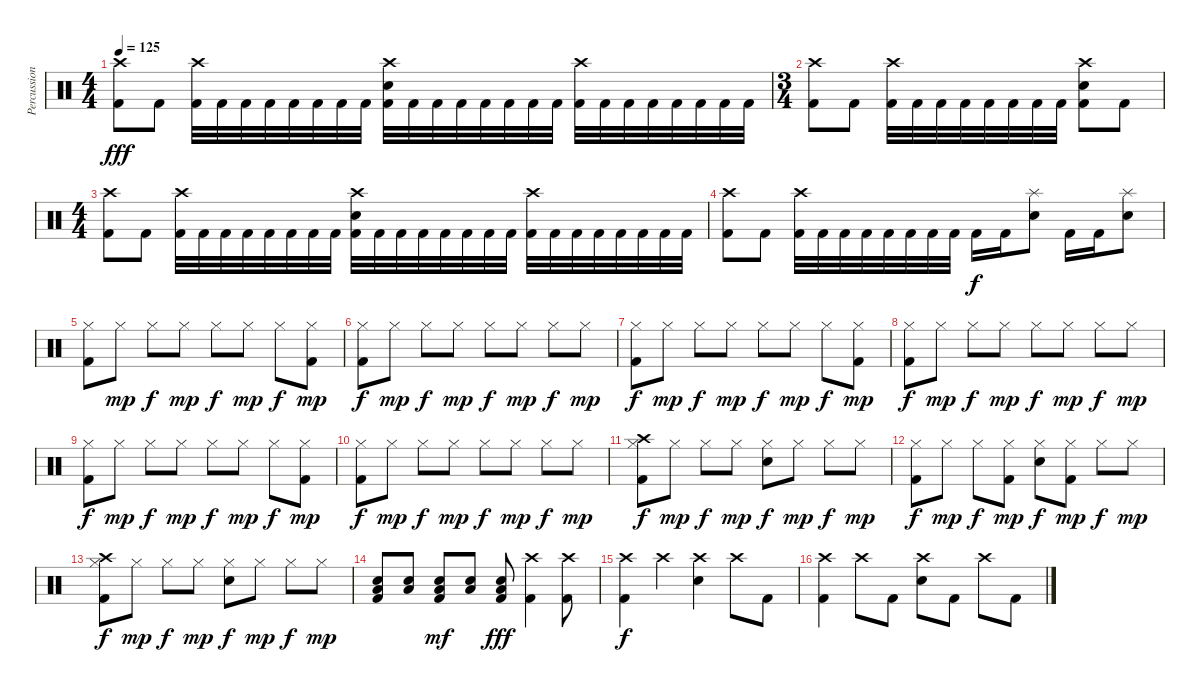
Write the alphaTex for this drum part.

\track ("Percussions" "Percussion") {instrument percussion}
\staff {score}
\articulation defaults
\ts (4 4)
\tempo 125
\clef neutral
\ks c
("Crash high (hit)" "Kick (hit) 2").8{dy fff} "Kick (hit) 2".8 ("Crash high (hit)" "Kick (hit) 2").32 "Kick (hit) 2".32 "Kick (hit) 2".32 "Kick (hit) 2".32 "Kick (hit) 2".32 "Kick (hit) 2".32 "Kick (hit) 2".32 "Kick (hit) 2".32 ("Crash high (hit)" "Electric Snare (hit)" "Kick (hit) 2").32 "Kick (hit) 2".32 "Kick (hit) 2".32 "Kick (hit) 2".32 "Kick (hit) 2".32 "Kick (hit) 2".32 "Kick (hit) 2".32 "Kick (hit) 2".32 ("Crash high (hit)" "Kick (hit) 2").32 "Kick (hit) 2".32 "Kick (hit) 2".32 "Kick (hit) 2".32 "Kick (hit) 2".32 "Kick (hit) 2".32 "Kick (hit) 2".32 "Kick (hit) 2".32 |
\ts (3 4)
("Crash high (hit)" "Kick (hit) 2").8 "Kick (hit) 2".8 ("Crash high (hit)" "Kick (hit) 2").32 "Kick (hit) 2".32 "Kick (hit) 2".32 "Kick (hit) 2".32 "Kick (hit) 2".32 "Kick (hit) 2".32 "Kick (hit) 2".32 "Kick (hit) 2".32 ("Crash high (hit)" "Electric Snare (hit)" "Kick (hit) 2").8 "Kick (hit) 2".8 |
\ts (4 4)
("Crash high (hit)" "Kick (hit) 2").8 "Kick (hit) 2".8 ("Crash high (hit)" "Kick (hit) 2").32 "Kick (hit) 2".32 "Kick (hit) 2".32 "Kick (hit) 2".32 "Kick (hit) 2".32 "Kick (hit) 2".32 "Kick (hit) 2".32 "Kick (hit) 2".32 ("Crash high (hit)" "Electric Snare (hit)" "Kick (hit) 2").32 "Kick (hit) 2".32 "Kick (hit) 2".32 "Kick (hit) 2".32 "Kick (hit) 2".32 "Kick (hit) 2".32 "Kick (hit) 2".32 "Kick (hit) 2".32 ("Crash high (hit)" "Kick (hit) 2").32 "Kick (hit) 2".32 "Kick (hit) 2".32 "Kick (hit) 2".32 "Kick (hit) 2".32 "Kick (hit) 2".32 "Kick (hit) 2".32 "Kick (hit) 2".32 |
("Crash high (hit)" "Kick (hit) 2").8 "Kick (hit) 2".8 ("Crash high (hit)" "Kick (hit) 2").32 "Kick (hit) 2".32 "Kick (hit) 2".32 "Kick (hit) 2".32 "Kick (hit) 2".32 "Kick (hit) 2".32 "Kick (hit) 2".32 "Kick (hit) 2".32 "Kick (hit) 2".16{dy f} "Kick (hit) 2".16 ("Splash (hit)" "Electric Snare (hit)").8 "Kick (hit) 2".16 "Kick (hit) 2".16 ("Splash (hit)" "Electric Snare (hit)").8 |
("Hi-Hat (closed)" "Kick (hit) 2").8 "Hi-Hat (closed)".8{dy mp} "Hi-Hat (closed)".8{dy f} "Hi-Hat (closed)".8{dy mp} "Hi-Hat (closed)".8{dy f} "Hi-Hat (closed)".8{dy mp} "Hi-Hat (closed)".8{dy f} ("Hi-Hat (closed)" "Kick (hit) 2").8{dy mp} |
("Hi-Hat (closed)" "Kick (hit) 2").8{dy f} "Hi-Hat (closed)".8{dy mp} "Hi-Hat (closed)".8{dy f} "Hi-Hat (closed)".8{dy mp} "Hi-Hat (closed)".8{dy f} "Hi-Hat (closed)".8{dy mp} "Hi-Hat (closed)".8{dy f} "Hi-Hat (closed)".8{dy mp} |
("Hi-Hat (closed)" "Kick (hit) 2").8{dy f} "Hi-Hat (closed)".8{dy mp} "Hi-Hat (closed)".8{dy f} "Hi-Hat (closed)".8{dy mp} "Hi-Hat (closed)".8{dy f} "Hi-Hat (closed)".8{dy mp} "Hi-Hat (closed)".8{dy f} ("Hi-Hat (closed)" "Kick (hit) 2").8{dy mp} |
("Hi-Hat (closed)" "Kick (hit) 2").8{dy f} "Hi-Hat (closed)".8{dy mp} "Hi-Hat (closed)".8{dy f} "Hi-Hat (closed)".8{dy mp} "Hi-Hat (closed)".8{dy f} "Hi-Hat (closed)".8{dy mp} "Hi-Hat (closed)".8{dy f} "Hi-Hat (closed)".8{dy mp} |
("Hi-Hat (closed)" "Kick (hit) 2").8{dy f} "Hi-Hat (closed)".8{dy mp} "Hi-Hat (closed)".8{dy f} "Hi-Hat (closed)".8{dy mp} "Hi-Hat (closed)".8{dy f} "Hi-Hat (closed)".8{dy mp} "Hi-Hat (closed)".8{dy f} ("Hi-Hat (closed)" "Kick (hit) 2").8{dy mp} |
("Hi-Hat (closed)" "Kick (hit) 2").8{dy f} "Hi-Hat (closed)".8{dy mp} "Hi-Hat (closed)".8{dy f} "Hi-Hat (closed)".8{dy mp} "Hi-Hat (closed)".8{dy f} "Hi-Hat (closed)".8{dy mp} "Hi-Hat (closed)".8{dy f} "Hi-Hat (closed)".8{dy mp} |
("Crash high (hit)" "Hi-Hat (closed)" "Kick (hit) 2").8{dy f} "Hi-Hat (closed)".8{dy mp} "Hi-Hat (closed)".8{dy f} "Hi-Hat (closed)".8{dy mp} ("Hi-Hat (closed)" "Electric Snare (hit)").8{dy f} "Hi-Hat (closed)".8{dy mp} "Hi-Hat (closed)".8{dy f} "Hi-Hat (closed)".8{dy mp} |
("Hi-Hat (closed)" "Kick (hit) 2").8{dy f} "Hi-Hat (closed)".8{dy mp} "Hi-Hat (closed)".8{dy f} ("Hi-Hat (closed)" "Kick (hit) 2").8{dy mp} ("Hi-Hat (closed)" "Electric Snare (hit)").8{dy f} ("Hi-Hat (closed)" "Kick (hit) 2").8{dy mp} "Hi-Hat (closed)".8{dy f} "Hi-Hat (closed)".8{dy mp} |
("Crash high (hit)" "Hi-Hat (closed)" "Kick (hit) 2").8{dy f} "Hi-Hat (closed)".8{dy mp} "Hi-Hat (closed)".8{dy f} "Hi-Hat (closed)".8{dy mp} ("Hi-Hat (closed)" "Electric Snare (hit)").8{dy f} "Hi-Hat (closed)".8{dy mp} "Hi-Hat (closed)".8{dy f} "Hi-Hat (closed)".8{dy mp} |
("Electric Snare (hit)" "Low Floor Tom (hit)" "Kick (hit) 2").8 ("Electric Snare (hit)" "Low Floor Tom (hit)").8 ("Electric Snare (hit)" "Low Floor Tom (hit)" "Kick (hit) 2").8{dy mf} ("Electric Snare (hit)" "Low Floor Tom (hit)").8 ("Electric Snare (hit)" "Low Floor Tom (hit)" "Kick (hit) 2").8{dy fff} ("Crash high (hit)" "Kick (hit) 2").4 ("Crash high (hit)" "Kick (hit) 2").8 |
("Crash high (hit)" "Kick (hit) 2").4{dy f} "Crash high (hit)".4 ("Crash high (hit)" "Electric Snare (hit)").4 "Crash high (hit)".8 "Kick (hit) 2".8 |
("Crash high (hit)" "Kick (hit) 2").4 "Crash high (hit)".8 "Kick (hit) 2".8 ("Crash high (hit)" "Electric Snare (hit)").8 "Kick (hit) 2".8 "Crash high (hit)".8 "Kick (hit) 2".8
